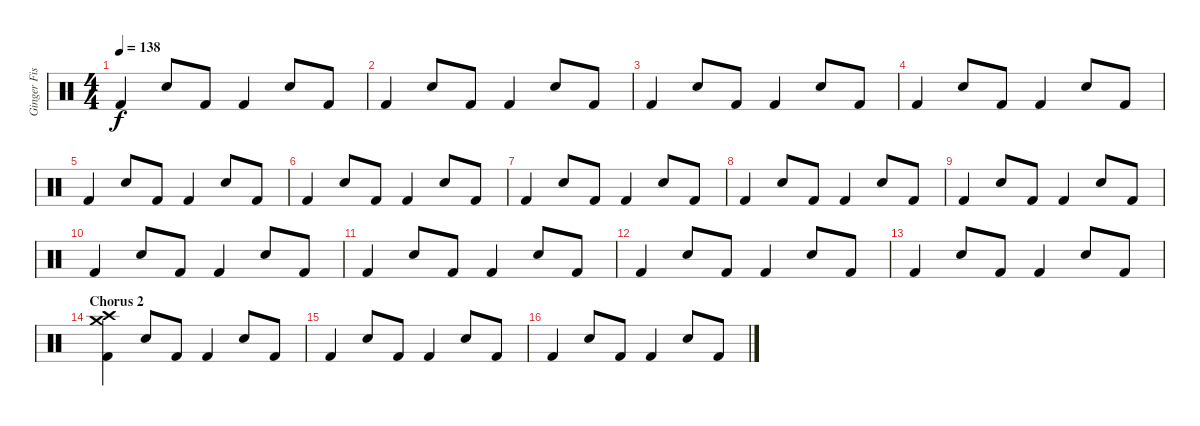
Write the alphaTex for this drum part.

\track ("Ginger Fish [Drums]" "Ginger Fis") {instrument percussion}
\staff {score}
\articulation defaults
\ts (4 4)
\tempo 138
\clef neutral
\ks c "Kick (hit) 2".4{dy f} "Snare (hit) 2".8 "Kick (hit) 2".8 "Kick (hit) 2".4 "Snare (hit) 2".8 "Kick (hit) 2".8
|
"Kick (hit) 2".4 "Snare (hit) 2".8 "Kick (hit) 2".8 "Kick (hit) 2".4 "Snare (hit) 2".8 "Kick (hit) 2".8 |
"Kick (hit) 2".4 "Snare (hit) 2".8 "Kick (hit) 2".8 "Kick (hit) 2".4 "Snare (hit) 2".8 "Kick (hit) 2".8 |
"Kick (hit) 2".4 "Snare (hit) 2".8 "Kick (hit) 2".8 "Kick (hit) 2".4 "Snare (hit) 2".8 "Kick (hit) 2".8 |
"Kick (hit) 2".4 "Snare (hit) 2".8 "Kick (hit) 2".8 "Kick (hit) 2".4 "Snare (hit) 2".8 "Kick (hit) 2".8 |
"Kick (hit) 2".4 "Snare (hit) 2".8 "Kick (hit) 2".8 "Kick (hit) 2".4 "Snare (hit) 2".8 "Kick (hit) 2".8 |
"Kick (hit) 2".4 "Snare (hit) 2".8 "Kick (hit) 2".8 "Kick (hit) 2".4 "Snare (hit) 2".8 "Kick (hit) 2".8 |
"Kick (hit) 2".4 "Snare (hit) 2".8 "Kick (hit) 2".8 "Kick (hit) 2".4 "Snare (hit) 2".8 "Kick (hit) 2".8 |
"Kick (hit) 2".4 "Snare (hit) 2".8 "Kick (hit) 2".8 "Kick (hit) 2".4 "Snare (hit) 2".8 "Kick (hit) 2".8 |
"Kick (hit) 2".4 "Snare (hit) 2".8 "Kick (hit) 2".8 "Kick (hit) 2".4 "Snare (hit) 2".8 "Kick (hit) 2".8 |
"Kick (hit) 2".4 "Snare (hit) 2".8 "Kick (hit) 2".8 "Kick (hit) 2".4 "Snare (hit) 2".8 "Kick (hit) 2".8 |
"Kick (hit) 2".4 "Snare (hit) 2".8 "Kick (hit) 2".8 "Kick (hit) 2".4 "Snare (hit) 2".8 "Kick (hit) 2".8 |
"Kick (hit) 2".4 "Snare (hit) 2".8 "Kick (hit) 2".8 "Kick (hit) 2".4 "Snare (hit) 2".8 "Kick (hit) 2".8 |
\section ("" "Chorus 2")
("Kick (hit) 2" "Crash high (hit)" "Crash medium (hit)").4 "Snare (hit) 2".8 "Kick (hit) 2".8 "Kick (hit) 2".4 "Snare (hit) 2".8 "Kick (hit) 2".8 |
"Kick (hit) 2".4 "Snare (hit) 2".8 "Kick (hit) 2".8 "Kick (hit) 2".4 "Snare (hit) 2".8 "Kick (hit) 2".8 |
"Kick (hit) 2".4 "Snare (hit) 2".8 "Kick (hit) 2".8 "Kick (hit) 2".4 "Snare (hit) 2".8 "Kick (hit) 2".8
